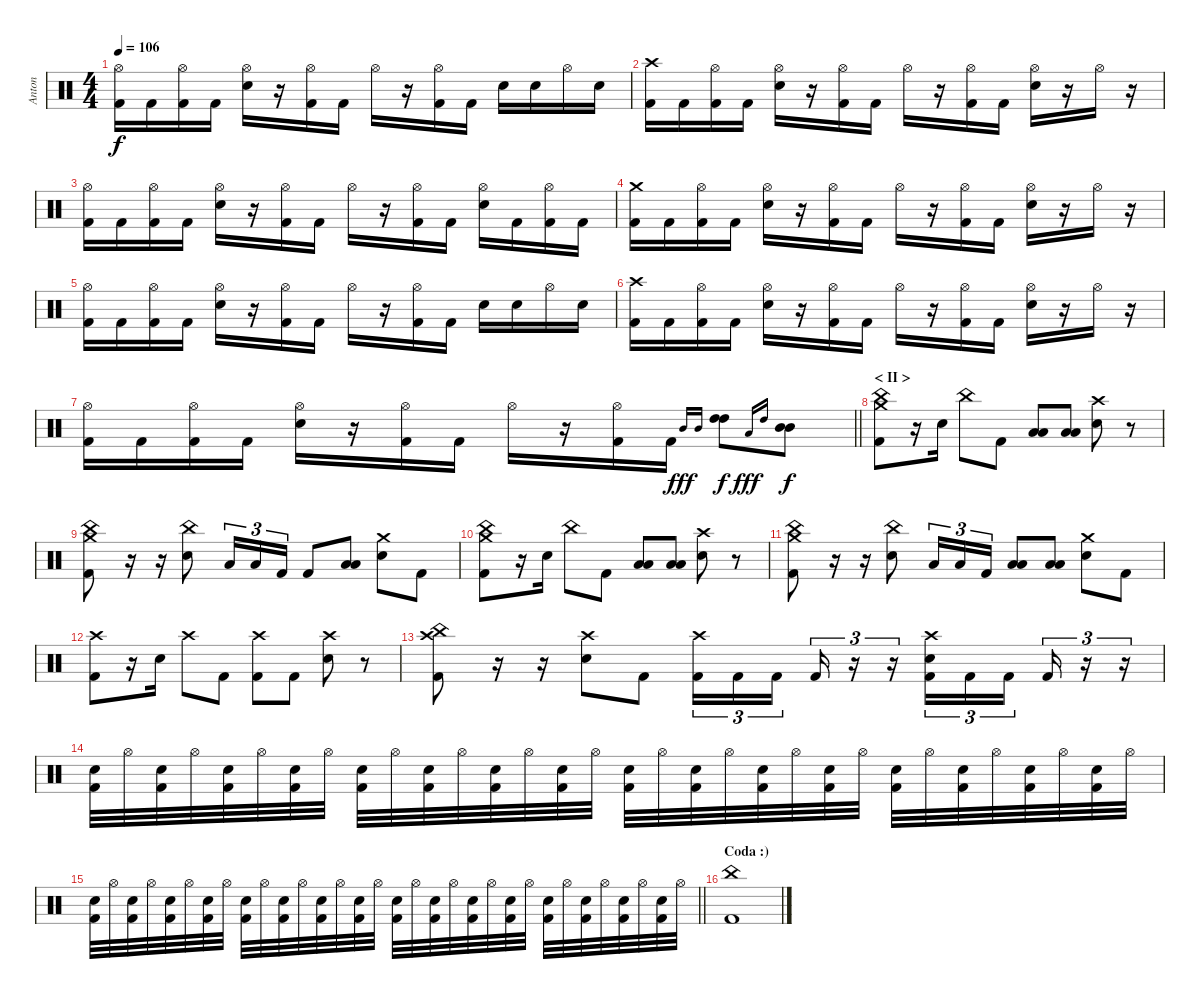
\track ("Anton" "Anton") {instrument percussion}
\staff
\articulation defaults
\ts (4 4)
\tempo 106
\clef neutral
\ks c
("Hi-Hat (open)" "Kick (hit) 2").16{dy f} "Kick (hit) 2".16 ("Hi-Hat (open)" "Kick (hit) 2").16 "Kick (hit) 2".16 ("Hi-Hat (open)" "Electric Snare (hit)").16 r.16 ("Hi-Hat (open)" "Kick (hit) 2").16 "Kick (hit) 2".16 "Hi-Hat (open)".16 r.16 ("Hi-Hat (open)" "Kick (hit) 2").16 "Kick (hit) 2".16 "Electric Snare (hit)".16 "Electric Snare (hit)".16 "Hi-Hat (open)".16 "Electric Snare (hit)".16 |
("Crash high (hit)" "Kick (hit) 2").16 "Kick (hit) 2".16 ("Hi-Hat (open)" "Kick (hit) 2").16 "Kick (hit) 2".16 ("Hi-Hat (open)" "Electric Snare (hit)").16 r.16 ("Hi-Hat (open)" "Kick (hit) 2").16 "Kick (hit) 2".16 "Hi-Hat (open)".16 r.16 ("Hi-Hat (open)" "Kick (hit) 2").16 "Kick (hit) 2".16 ("Hi-Hat (open)" "Electric Snare (hit)").16 r.16 "Hi-Hat (open)".16 r.16 |
("Hi-Hat (open)" "Kick (hit) 2").16 "Kick (hit) 2".16 ("Hi-Hat (open)" "Kick (hit) 2").16 "Kick (hit) 2".16 ("Hi-Hat (open)" "Electric Snare (hit)").16 r.16 ("Hi-Hat (open)" "Kick (hit) 2").16 "Kick (hit) 2".16 "Hi-Hat (open)".16 r.16 ("Hi-Hat (open)" "Kick (hit) 2").16 "Kick (hit) 2".16 ("Hi-Hat (open)" "Electric Snare (hit)").16 "Kick (hit) 2".16 ("Hi-Hat (open)" "Kick (hit) 2").16 "Kick (hit) 2".16 |
("Crash medium (hit)" "Kick (hit) 2").16 "Kick (hit) 2".16 ("Hi-Hat (open)" "Kick (hit) 2").16 "Kick (hit) 2".16 ("Hi-Hat (open)" "Electric Snare (hit)").16 r.16 ("Hi-Hat (open)" "Kick (hit) 2").16 "Kick (hit) 2".16 "Hi-Hat (open)".16 r.16 ("Hi-Hat (open)" "Kick (hit) 2").16 "Kick (hit) 2".16 ("Hi-Hat (open)" "Electric Snare (hit)").16 r.16 "Hi-Hat (open)".16 r.16 |
("Hi-Hat (open)" "Kick (hit) 2").16 "Kick (hit) 2".16 ("Hi-Hat (open)" "Kick (hit) 2").16 "Kick (hit) 2".16 ("Hi-Hat (open)" "Electric Snare (hit)").16 r.16 ("Hi-Hat (open)" "Kick (hit) 2").16 "Kick (hit) 2".16 "Hi-Hat (open)".16 r.16 ("Hi-Hat (open)" "Kick (hit) 2").16 "Kick (hit) 2".16 "Electric Snare (hit)".16 "Electric Snare (hit)".16 "Hi-Hat (open)".16 "Electric Snare (hit)".16 |
("Crash high (hit)" "Kick (hit) 2").16 "Kick (hit) 2".16 ("Hi-Hat (open)" "Kick (hit) 2").16 "Kick (hit) 2".16 ("Hi-Hat (open)" "Electric Snare (hit)").16 r.16 ("Hi-Hat (open)" "Kick (hit) 2").16 "Kick (hit) 2".16 "Hi-Hat (open)".16 r.16 ("Hi-Hat (open)" "Kick (hit) 2").16 "Kick (hit) 2".16 ("Hi-Hat (open)" "Electric Snare (hit)").16 r.16 "Hi-Hat (open)".16 r.16 |
\barLineRight lightlight
("Hi-Hat (open)" "Kick (hit) 2").16 "Kick (hit) 2".16 ("Hi-Hat (open)" "Kick (hit) 2").16 "Kick (hit) 2".16 ("Hi-Hat (open)" "Electric Snare (hit)").16 r.16 ("Hi-Hat (open)" "Kick (hit) 2").16 "Kick (hit) 2".16 "Hi-Hat (open)".16 r.16 ("Hi-Hat (open)" "Kick (hit) 2").16 "Kick (hit) 2".16 "Mid Tom (hit)".16{gr onbeat dy fff} "Mid Tom (hit)".16{gr onbeat} ("High Tom (hit)" "High Tom (hit)").8{dy f} "Low Tom (hit)".16{gr onbeat dy fff} "High Tom (hit)".16{gr onbeat} ("Mid Tom (hit)" "Mid Tom (hit)").8{dy f} |
\section ("" "< II >")
("Crash medium (hit)" "China (hit)" "Kick (hit) 2").8 r.16 "Electric Snare (hit)".16 "China (hit)".8 "Kick (hit) 2".8 ("Low Tom (hit)" "Low Floor Tom (hit)").8 ("Low Tom (hit)" "Low Floor Tom (hit)").8 ("Crash high (hit)" "Electric Snare (hit)").8 r.8 |
("Crash medium (hit)" "China (hit)" "Kick (hit) 2").8 r.16 r.16 ("China (hit)" "Electric Snare (hit)").8 "Low Floor Tom (hit)".16{tu (3 2)} "Low Floor Tom (hit)".16{tu (3 2)} "Kick (hit) 2".16{tu (3 2)} "Kick (hit) 2".8 ("Low Tom (hit)" "Low Floor Tom (hit)").8 ("Crash medium (hit)" "Electric Snare (hit)").8 "Kick (hit) 2".8 |
("Crash medium (hit)" "China (hit)" "Kick (hit) 2").8 r.16 "Electric Snare (hit)".16 "China (hit)".8 "Kick (hit) 2".8 ("Low Tom (hit)" "Low Floor Tom (hit)").8 ("Low Tom (hit)" "Low Floor Tom (hit)").8 ("Crash high (hit)" "Electric Snare (hit)").8 r.8 |
("Crash medium (hit)" "China (hit)" "Kick (hit) 2").8 r.16 r.16 ("China (hit)" "Electric Snare (hit)").8 "Low Floor Tom (hit)".16{tu (3 2)} "Low Floor Tom (hit)".16{tu (3 2)} "Kick (hit) 2".16{tu (3 2)} ("Low Tom (hit)" "Low Floor Tom (hit)").8 ("Low Tom (hit)" "Low Floor Tom (hit)").8 ("Crash medium (hit)" "Electric Snare (hit)").8 "Kick (hit) 2".8 |
("Crash high (hit)" "Kick (hit) 2").8 r.16 "Electric Snare (hit)".16 "Crash high (hit)".8 "Kick (hit) 2".8 ("Crash high (hit)" "Kick (hit) 2").8 "Kick (hit) 2".8 ("Crash high (hit)" "Electric Snare (hit)").8 r.8 |
("China (hit)" "Crash high (hit)" "Kick (hit) 2").8 r.16 r.16 ("Crash high (hit)" "Electric Snare (hit)").8 "Kick (hit) 2".8 ("Crash high (hit)" "Kick (hit) 2").16{tu (3 2)} "Kick (hit) 2".16{tu (3 2)} "Kick (hit) 2".16{tu (3 2) beam splitsecondary} "Kick (hit) 2".16{tu (3 2)} r.16{tu (3 2)} r.16{tu (3 2)} ("Crash high (hit)" "Electric Snare (hit)" "Kick (hit) 2").16{tu (3 2)} "Kick (hit) 2".16{tu (3 2)} "Kick (hit) 2".16{tu (3 2) beam splitsecondary} "Kick (hit) 2".16{tu (3 2)} r.16{tu (3 2)} r.16{tu (3 2)} |
("Electric Snare (hit)" "Kick (hit) 2").32 "Hi-Hat (open)".32 ("Electric Snare (hit)" "Kick (hit) 2").32 "Hi-Hat (open)".32 ("Electric Snare (hit)" "Kick (hit) 2").32 "Hi-Hat (open)".32 ("Electric Snare (hit)" "Kick (hit) 2").32 "Hi-Hat (open)".32 ("Electric Snare (hit)" "Kick (hit) 2").32 "Hi-Hat (open)".32 ("Electric Snare (hit)" "Kick (hit) 2").32 "Hi-Hat (open)".32 ("Electric Snare (hit)" "Kick (hit) 2").32 "Hi-Hat (open)".32 ("Electric Snare (hit)" "Kick (hit) 2").32 "Hi-Hat (open)".32 ("Electric Snare (hit)" "Kick (hit) 2").32 "Hi-Hat (open)".32 ("Electric Snare (hit)" "Kick (hit) 2").32 "Hi-Hat (open)".32 ("Electric Snare (hit)" "Kick (hit) 2").32 "Hi-Hat (open)".32 ("Electric Snare (hit)" "Kick (hit) 2").32 "Hi-Hat (open)".32 ("Electric Snare (hit)" "Kick (hit) 2").32 "Hi-Hat (open)".32 ("Electric Snare (hit)" "Kick (hit) 2").32 "Hi-Hat (open)".32 ("Electric Snare (hit)" "Kick (hit) 2").32 "Hi-Hat (open)".32 ("Electric Snare (hit)" "Kick (hit) 2").32 "Hi-Hat (open)".32 |
\barLineRight lightlight
("Electric Snare (hit)" "Kick (hit) 2").32 "Hi-Hat (open)".32 ("Electric Snare (hit)" "Kick (hit) 2").32 "Hi-Hat (open)".32 ("Electric Snare (hit)" "Kick (hit) 2").32 "Hi-Hat (open)".32 ("Electric Snare (hit)" "Kick (hit) 2").32 "Hi-Hat (open)".32 ("Electric Snare (hit)" "Kick (hit) 2").32 "Hi-Hat (open)".32 ("Electric Snare (hit)" "Kick (hit) 2").32 "Hi-Hat (open)".32 ("Electric Snare (hit)" "Kick (hit) 2").32 "Hi-Hat (open)".32 ("Electric Snare (hit)" "Kick (hit) 2").32 "Hi-Hat (open)".32 ("Electric Snare (hit)" "Kick (hit) 2").32 "Hi-Hat (open)".32 ("Electric Snare (hit)" "Kick (hit) 2").32 "Hi-Hat (open)".32 ("Electric Snare (hit)" "Kick (hit) 2").32 "Hi-Hat (open)".32 ("Electric Snare (hit)" "Kick (hit) 2").32 "Hi-Hat (open)".32 ("Electric Snare (hit)" "Kick (hit) 2").32 "Hi-Hat (open)".32 ("Electric Snare (hit)" "Kick (hit) 2").32 "Hi-Hat (open)".32 ("Electric Snare (hit)" "Kick (hit) 2").32 "Hi-Hat (open)".32 ("Electric Snare (hit)" "Kick (hit) 2").32 "Hi-Hat (open)".32 |
\section ("" "Coda :)")
("China (hit)" "Kick (hit) 2").1
